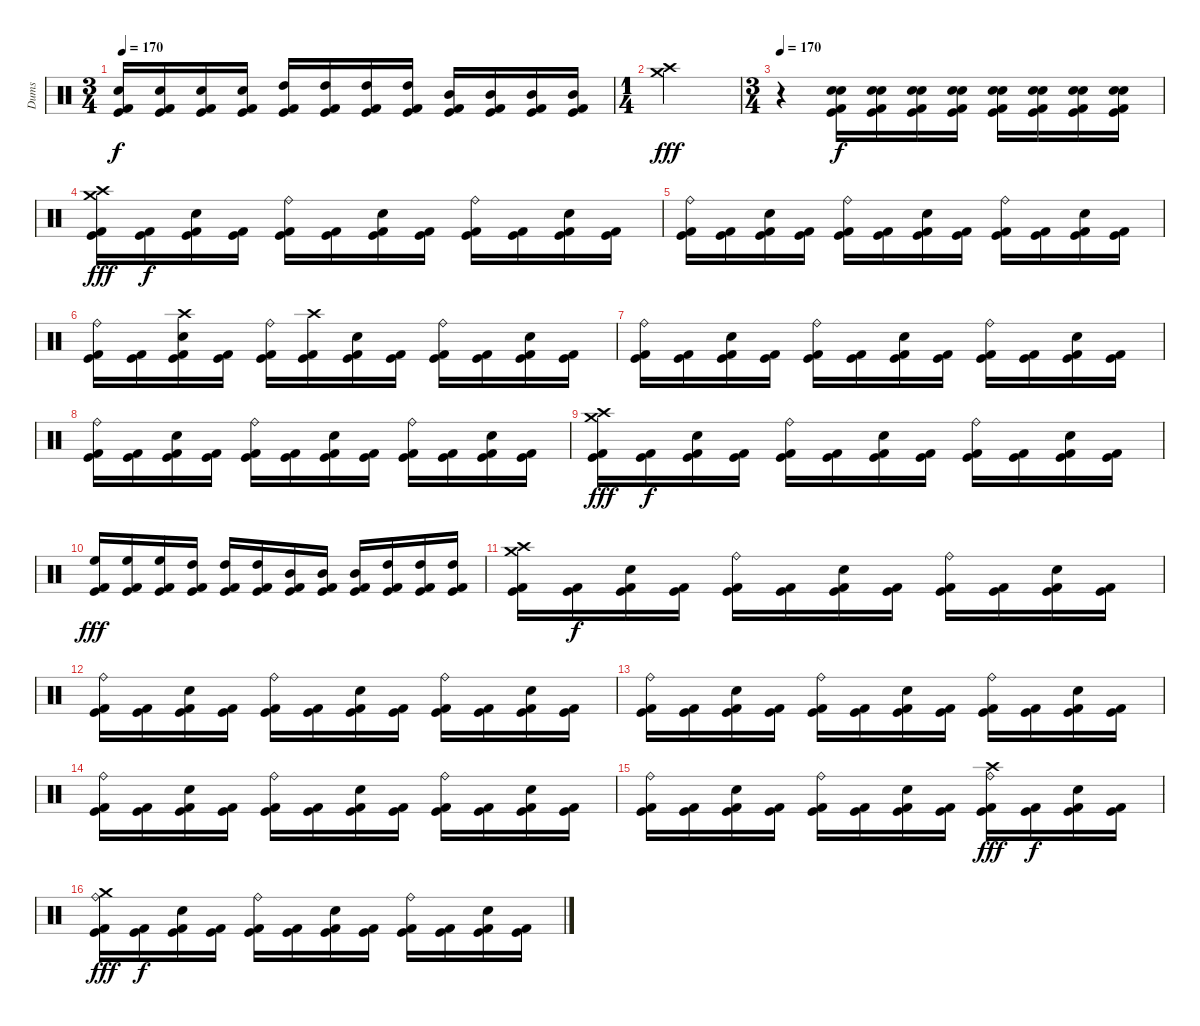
\track ("Dums" "Dums") {instrument percussion}
\staff {score}
\articulation defaults
\ts (3 4)
\tempo 170
\clef neutral
\ks c
("Electric Snare (hit)" "Kick (hit)" "Kick (hit) 2").16{dy f} ("Electric Snare (hit)" "Kick (hit)" "Kick (hit) 2").16 ("Electric Snare (hit)" "Kick (hit)" "Kick (hit) 2").16 ("Electric Snare (hit)" "Kick (hit)" "Kick (hit) 2").16 ("High Tom (hit)" "Kick (hit)" "Kick (hit) 2").16 ("High Tom (hit)" "Kick (hit)" "Kick (hit) 2").16 ("High Tom (hit)" "Kick (hit)" "Kick (hit) 2").16 ("High Tom (hit)" "Kick (hit)" "Kick (hit) 2").16 ("Mid Tom (hit)" "Kick (hit)" "Kick (hit) 2").16 ("Mid Tom (hit)" "Kick (hit)" "Kick (hit) 2").16 ("Mid Tom (hit)" "Kick (hit)" "Kick (hit) 2").16 ("Mid Tom (hit)" "Kick (hit)" "Kick (hit) 2").16 |
\ts (1 4)
("Crash high (hit)" "Crash medium (hit)").4{dy fff} |
\ts (3 4)
\tempo 170
r.4 ("Electric Snare (hit)" "Snare (hit) 2" "Kick (hit) 2" "Kick (hit)").16{dy f} ("Electric Snare (hit)" "Snare (hit) 2" "Kick (hit) 2" "Kick (hit)").16 ("Electric Snare (hit)" "Snare (hit) 2" "Kick (hit) 2" "Kick (hit)").16 ("Electric Snare (hit)" "Snare (hit) 2" "Kick (hit) 2" "Kick (hit)").16 ("Electric Snare (hit)" "Snare (hit) 2" "Kick (hit) 2" "Kick (hit)").16 ("Electric Snare (hit)" "Snare (hit) 2" "Kick (hit) 2" "Kick (hit)").16 ("Electric Snare (hit)" "Snare (hit) 2" "Kick (hit) 2" "Kick (hit)").16 ("Electric Snare (hit)" "Snare (hit) 2" "Kick (hit) 2" "Kick (hit)").16 |
("Crash high (hit)" "Crash medium (hit)" "Kick (hit)" "Kick (hit) 2").16{dy fff} ("Kick (hit)" "Kick (hit) 2").16{dy f} ("Electric Snare (hit)" "Kick (hit)" "Kick (hit) 2").16 ("Kick (hit)" "Kick (hit) 2").16 ("Ride (bell)" "Kick (hit)" "Kick (hit) 2").16 ("Kick (hit)" "Kick (hit) 2").16 ("Electric Snare (hit)" "Kick (hit)" "Kick (hit) 2").16 ("Kick (hit)" "Kick (hit) 2").16 ("Ride (bell)" "Kick (hit)" "Kick (hit) 2").16 ("Kick (hit)" "Kick (hit) 2").16 ("Electric Snare (hit)" "Kick (hit)" "Kick (hit) 2").16 ("Kick (hit)" "Kick (hit) 2").16 |
("Ride (bell)" "Kick (hit)" "Kick (hit) 2").16 ("Kick (hit)" "Kick (hit) 2").16 ("Electric Snare (hit)" "Kick (hit)" "Kick (hit) 2").16 ("Kick (hit)" "Kick (hit) 2").16 ("Ride (bell)" "Kick (hit)" "Kick (hit) 2").16 ("Kick (hit)" "Kick (hit) 2").16 ("Electric Snare (hit)" "Kick (hit)" "Kick (hit) 2").16 ("Kick (hit)" "Kick (hit) 2").16 ("Ride (bell)" "Kick (hit)" "Kick (hit) 2").16 ("Kick (hit)" "Kick (hit) 2").16 ("Electric Snare (hit)" "Kick (hit)" "Kick (hit) 2").16 ("Kick (hit)" "Kick (hit) 2").16 |
("Ride (bell)" "Kick (hit)" "Kick (hit) 2").16 ("Kick (hit)" "Kick (hit) 2").16 ("Crash high (hit)" "Electric Snare (hit)" "Kick (hit)" "Kick (hit) 2").16 ("Kick (hit)" "Kick (hit) 2").16 ("Ride (bell)" "Kick (hit)" "Kick (hit) 2").16 ("Crash high (hit)" "Kick (hit)" "Kick (hit) 2").16 ("Electric Snare (hit)" "Kick (hit)" "Kick (hit) 2").16 ("Kick (hit)" "Kick (hit) 2").16 ("Ride (bell)" "Kick (hit)" "Kick (hit) 2").16 ("Kick (hit)" "Kick (hit) 2").16 ("Electric Snare (hit)" "Kick (hit)" "Kick (hit) 2").16 ("Kick (hit)" "Kick (hit) 2").16 |
("Ride (bell)" "Kick (hit)" "Kick (hit) 2").16 ("Kick (hit)" "Kick (hit) 2").16 ("Electric Snare (hit)" "Kick (hit)" "Kick (hit) 2").16 ("Kick (hit)" "Kick (hit) 2").16 ("Ride (bell)" "Kick (hit)" "Kick (hit) 2").16 ("Kick (hit)" "Kick (hit) 2").16 ("Electric Snare (hit)" "Kick (hit)" "Kick (hit) 2").16 ("Kick (hit)" "Kick (hit) 2").16 ("Ride (bell)" "Kick (hit)" "Kick (hit) 2").16 ("Kick (hit)" "Kick (hit) 2").16 ("Electric Snare (hit)" "Kick (hit)" "Kick (hit) 2").16 ("Kick (hit)" "Kick (hit) 2").16 |
("Ride (bell)" "Kick (hit)" "Kick (hit) 2").16 ("Kick (hit)" "Kick (hit) 2").16 ("Electric Snare (hit)" "Kick (hit)" "Kick (hit) 2").16 ("Kick (hit)" "Kick (hit) 2").16 ("Ride (bell)" "Kick (hit)" "Kick (hit) 2").16 ("Kick (hit)" "Kick (hit) 2").16 ("Electric Snare (hit)" "Kick (hit)" "Kick (hit) 2").16 ("Kick (hit)" "Kick (hit) 2").16 ("Ride (bell)" "Kick (hit)" "Kick (hit) 2").16 ("Kick (hit)" "Kick (hit) 2").16 ("Electric Snare (hit)" "Kick (hit)" "Kick (hit) 2").16 ("Kick (hit)" "Kick (hit) 2").16 |
("Crash high (hit)" "Crash medium (hit)" "Kick (hit)" "Kick (hit) 2").16{dy fff} ("Kick (hit)" "Kick (hit) 2").16{dy f} ("Electric Snare (hit)" "Kick (hit)" "Kick (hit) 2").16 ("Kick (hit)" "Kick (hit) 2").16 ("Ride (bell)" "Kick (hit)" "Kick (hit) 2").16 ("Kick (hit)" "Kick (hit) 2").16 ("Electric Snare (hit)" "Kick (hit)" "Kick (hit) 2").16 ("Kick (hit)" "Kick (hit) 2").16 ("Ride (bell)" "Kick (hit)" "Kick (hit) 2").16 ("Kick (hit)" "Kick (hit) 2").16 ("Electric Snare (hit)" "Kick (hit)" "Kick (hit) 2").16 ("Kick (hit)" "Kick (hit) 2").16 |
("High Floor Tom (hit)" "Kick (hit)" "Kick (hit) 2").16{dy fff} ("High Floor Tom (hit)" "Kick (hit)" "Kick (hit) 2").16 ("High Floor Tom (hit)" "Kick (hit)" "Kick (hit) 2").16 ("High Tom (hit)" "Kick (hit)" "Kick (hit) 2").16 ("High Tom (hit)" "Kick (hit)" "Kick (hit) 2").16 ("High Tom (hit)" "Kick (hit)" "Kick (hit) 2").16 ("Mid Tom (hit)" "Kick (hit)" "Kick (hit) 2").16 ("Mid Tom (hit)" "Kick (hit)" "Kick (hit) 2").16 ("Mid Tom (hit)" "Kick (hit)" "Kick (hit) 2").16 ("High Tom (hit)" "Kick (hit)" "Kick (hit) 2").16 ("High Tom (hit)" "Kick (hit)" "Kick (hit) 2").16 ("High Tom (hit)" "Kick (hit)" "Kick (hit) 2").16 |
("Crash high (hit)" "Crash medium (hit)" "Kick (hit)" "Kick (hit) 2").16 ("Kick (hit)" "Kick (hit) 2").16{dy f} ("Electric Snare (hit)" "Kick (hit)" "Kick (hit) 2").16 ("Kick (hit)" "Kick (hit) 2").16 ("Ride (bell)" "Kick (hit)" "Kick (hit) 2").16 ("Kick (hit)" "Kick (hit) 2").16 ("Electric Snare (hit)" "Kick (hit)" "Kick (hit) 2").16 ("Kick (hit)" "Kick (hit) 2").16 ("Ride (bell)" "Kick (hit)" "Kick (hit) 2").16 ("Kick (hit)" "Kick (hit) 2").16 ("Electric Snare (hit)" "Kick (hit)" "Kick (hit) 2").16 ("Kick (hit)" "Kick (hit) 2").16 |
("Ride (bell)" "Kick (hit)" "Kick (hit) 2").16 ("Kick (hit)" "Kick (hit) 2").16 ("Electric Snare (hit)" "Kick (hit)" "Kick (hit) 2").16 ("Kick (hit)" "Kick (hit) 2").16 ("Ride (bell)" "Kick (hit)" "Kick (hit) 2").16 ("Kick (hit)" "Kick (hit) 2").16 ("Electric Snare (hit)" "Kick (hit)" "Kick (hit) 2").16 ("Kick (hit)" "Kick (hit) 2").16 ("Ride (bell)" "Kick (hit)" "Kick (hit) 2").16 ("Kick (hit)" "Kick (hit) 2").16 ("Electric Snare (hit)" "Kick (hit)" "Kick (hit) 2").16 ("Kick (hit)" "Kick (hit) 2").16 |
("Ride (bell)" "Kick (hit)" "Kick (hit) 2").16 ("Kick (hit)" "Kick (hit) 2").16 ("Electric Snare (hit)" "Kick (hit)" "Kick (hit) 2").16 ("Kick (hit)" "Kick (hit) 2").16 ("Ride (bell)" "Kick (hit)" "Kick (hit) 2").16 ("Kick (hit)" "Kick (hit) 2").16 ("Electric Snare (hit)" "Kick (hit)" "Kick (hit) 2").16 ("Kick (hit)" "Kick (hit) 2").16 ("Ride (bell)" "Kick (hit)" "Kick (hit) 2").16 ("Kick (hit)" "Kick (hit) 2").16 ("Electric Snare (hit)" "Kick (hit)" "Kick (hit) 2").16 ("Kick (hit)" "Kick (hit) 2").16 |
("Ride (bell)" "Kick (hit)" "Kick (hit) 2").16 ("Kick (hit)" "Kick (hit) 2").16 ("Electric Snare (hit)" "Kick (hit)" "Kick (hit) 2").16 ("Kick (hit)" "Kick (hit) 2").16 ("Ride (bell)" "Kick (hit)" "Kick (hit) 2").16 ("Kick (hit)" "Kick (hit) 2").16 ("Electric Snare (hit)" "Kick (hit)" "Kick (hit) 2").16 ("Kick (hit)" "Kick (hit) 2").16 ("Ride (bell)" "Kick (hit)" "Kick (hit) 2").16 ("Kick (hit)" "Kick (hit) 2").16 ("Electric Snare (hit)" "Kick (hit)" "Kick (hit) 2").16 ("Kick (hit)" "Kick (hit) 2").16 |
("Ride (bell)" "Kick (hit)" "Kick (hit) 2").16 ("Kick (hit)" "Kick (hit) 2").16 ("Electric Snare (hit)" "Kick (hit)" "Kick (hit) 2").16 ("Kick (hit)" "Kick (hit) 2").16 ("Ride (bell)" "Kick (hit)" "Kick (hit) 2").16 ("Kick (hit)" "Kick (hit) 2").16 ("Electric Snare (hit)" "Kick (hit)" "Kick (hit) 2").16 ("Kick (hit)" "Kick (hit) 2").16 ("Crash high (hit)" "Ride (bell)" "Kick (hit)" "Kick (hit) 2").16{dy fff} ("Kick (hit)" "Kick (hit) 2").16{dy f} ("Electric Snare (hit)" "Kick (hit)" "Kick (hit) 2").16 ("Kick (hit)" "Kick (hit) 2").16 |
("Crash medium (hit)" "Ride (bell)" "Kick (hit)" "Kick (hit) 2").16{dy fff} ("Kick (hit)" "Kick (hit) 2").16{dy f} ("Electric Snare (hit)" "Kick (hit)" "Kick (hit) 2").16 ("Kick (hit)" "Kick (hit) 2").16 ("Ride (bell)" "Kick (hit)" "Kick (hit) 2").16 ("Kick (hit)" "Kick (hit) 2").16 ("Electric Snare (hit)" "Kick (hit)" "Kick (hit) 2").16 ("Kick (hit)" "Kick (hit) 2").16 ("Ride (bell)" "Kick (hit)" "Kick (hit) 2").16 ("Kick (hit)" "Kick (hit) 2").16 ("Electric Snare (hit)" "Kick (hit)" "Kick (hit) 2").16 ("Kick (hit)" "Kick (hit) 2").16
